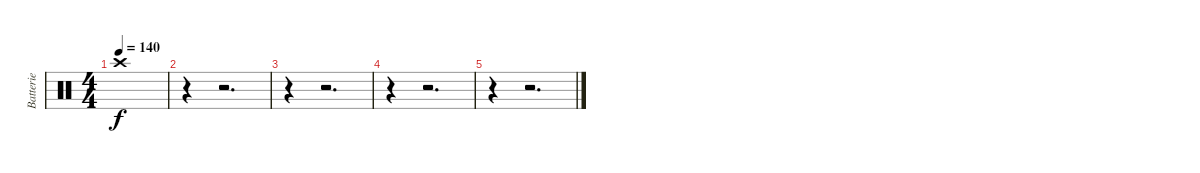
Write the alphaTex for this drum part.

\track ("Batterie" "Batterie") {instrument percussion}
\staff {score}
\articulation defaults
\ts (4 4)
\tempo 140
\clef neutral
\ks c "Crash high (hit)".1{dy f}
|
r.4 r.2{d} |
r.4 r.2{d} |
r.4 r.2{d} |
r.4 r.2{d}
